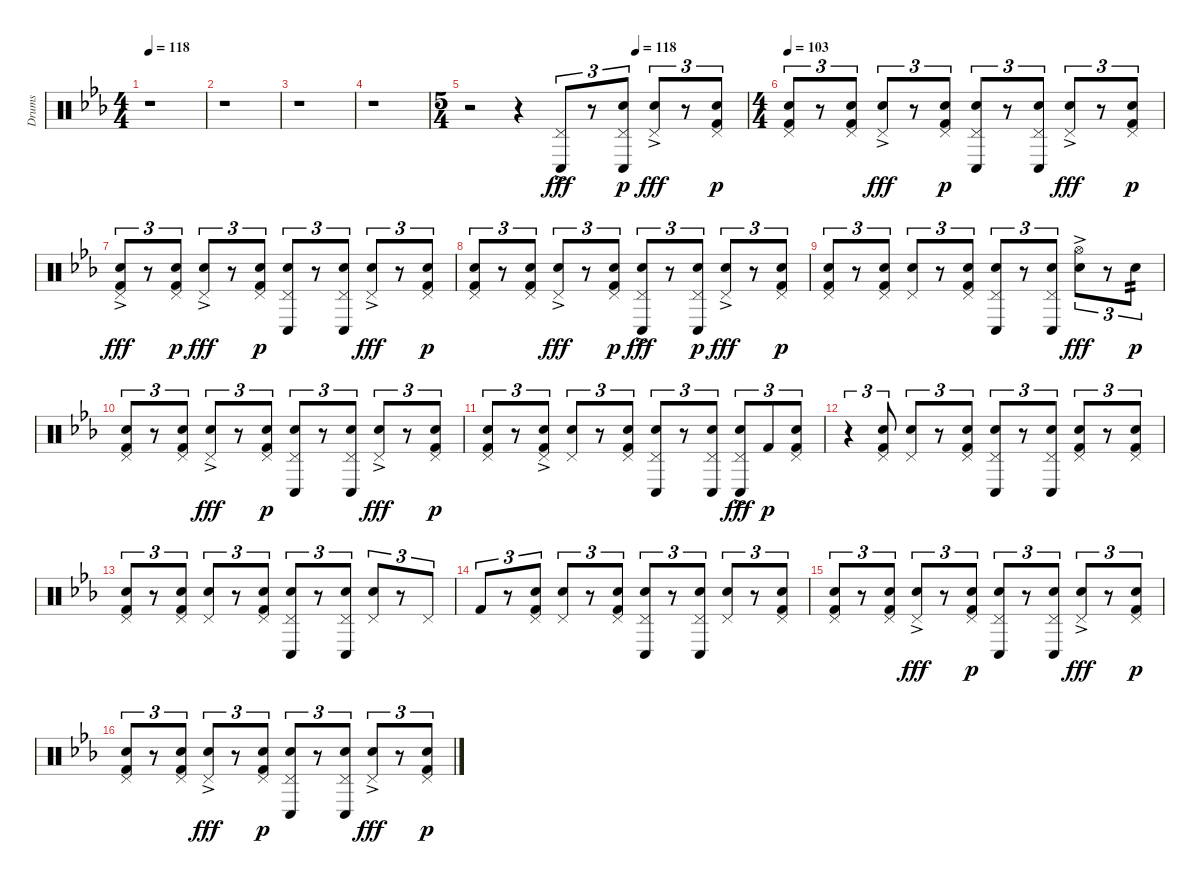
\track ("Drums" "Drums") {instrument percussion}
\staff {score}
\articulation defaults
\ts (4 4)
\tempo 118
\clef neutral
\ks eb
r.1{dy fff} |
r.1 |
r.1 |
r.1 |
\ts (5 4)
\tempo (118 0.6)
r.2 r.4 ("Pedal Hi-Hat (hit)"{ac} "Conga low (hit)"{ac}).8{tu (3 2)} r.8{tu (3 2)} ("Pedal Hi-Hat (hit)" "Snare (hit) 2" "Conga low (hit)").8{tu (3 2) dy p} ("Pedal Hi-Hat (hit)"{ac} "Snare (hit) 2"{ac}).8{tu (3 2) dy fff} r.8{tu (3 2)} ("Pedal Hi-Hat (hit)" "Snare (hit) 2" "Kick (hit) 2").8{tu (3 2) dy p} |
\ts (4 4)
\tempo 103
("Pedal Hi-Hat (hit)" "Snare (hit) 2" "Kick (hit) 2").8{tu (3 2)} r.8{tu (3 2)} ("Pedal Hi-Hat (hit)" "Snare (hit) 2" "Kick (hit) 2").8{tu (3 2)} ("Pedal Hi-Hat (hit)"{ac} "Snare (hit) 2"{ac}).8{tu (3 2) dy fff} r.8{tu (3 2)} ("Pedal Hi-Hat (hit)" "Snare (hit) 2" "Kick (hit) 2").8{tu (3 2) dy p} ("Pedal Hi-Hat (hit)" "Snare (hit) 2" "Conga low (hit)").8{tu (3 2)} r.8{tu (3 2)} ("Pedal Hi-Hat (hit)" "Snare (hit) 2" "Conga low (hit)").8{tu (3 2)} ("Pedal Hi-Hat (hit)"{ac} "Snare (hit) 2"{ac}).8{tu (3 2) dy fff} r.8{tu (3 2)} ("Pedal Hi-Hat (hit)" "Snare (hit) 2" "Kick (hit) 2").8{tu (3 2) dy p} |
("Pedal Hi-Hat (hit)"{ac} "Snare (hit) 2"{ac} "Kick (hit) 2"{ac}).8{tu (3 2) dy fff} r.8{tu (3 2)} ("Pedal Hi-Hat (hit)" "Snare (hit) 2" "Kick (hit) 2").8{tu (3 2) dy p} ("Pedal Hi-Hat (hit)"{ac} "Snare (hit) 2"{ac}).8{tu (3 2) dy fff} r.8{tu (3 2)} ("Pedal Hi-Hat (hit)" "Snare (hit) 2" "Kick (hit) 2").8{tu (3 2) dy p} ("Pedal Hi-Hat (hit)" "Snare (hit) 2" "Conga low (hit)").8{tu (3 2)} r.8{tu (3 2)} ("Pedal Hi-Hat (hit)" "Snare (hit) 2" "Conga low (hit)").8{tu (3 2)} ("Pedal Hi-Hat (hit)"{ac} "Snare (hit) 2"{ac}).8{tu (3 2) dy fff} r.8{tu (3 2)} ("Pedal Hi-Hat (hit)" "Snare (hit) 2" "Kick (hit) 2").8{tu (3 2) dy p} |
("Pedal Hi-Hat (hit)" "Snare (hit) 2" "Kick (hit) 2").8{tu (3 2)} r.8{tu (3 2)} ("Pedal Hi-Hat (hit)" "Snare (hit) 2" "Kick (hit) 2").8{tu (3 2)} ("Pedal Hi-Hat (hit)"{ac} "Snare (hit) 2"{ac}).8{tu (3 2) dy fff} r.8{tu (3 2)} ("Pedal Hi-Hat (hit)" "Snare (hit) 2" "Kick (hit) 2").8{tu (3 2) dy p} ("Pedal Hi-Hat (hit)"{ac} "Snare (hit) 2"{ac} "Conga low (hit)"{ac}).8{tu (3 2) dy fff} r.8{tu (3 2)} ("Pedal Hi-Hat (hit)" "Snare (hit) 2" "Conga low (hit)").8{tu (3 2) dy p} ("Pedal Hi-Hat (hit)"{ac} "Snare (hit) 2"{ac}).8{tu (3 2) dy fff} r.8{tu (3 2)} ("Pedal Hi-Hat (hit)" "Snare (hit) 2" "Kick (hit) 2").8{tu (3 2) dy p} |
("Pedal Hi-Hat (hit)" "Snare (hit) 2" "Kick (hit) 2").8{tu (3 2)} r.8{tu (3 2)} ("Pedal Hi-Hat (hit)" "Snare (hit) 2" "Kick (hit) 2").8{tu (3 2)} ("Pedal Hi-Hat (hit)" "Snare (hit) 2").8{tu (3 2)} r.8{tu (3 2)} ("Pedal Hi-Hat (hit)" "Snare (hit) 2" "Kick (hit) 2").8{tu (3 2)} ("Pedal Hi-Hat (hit)" "Snare (hit) 2" "Conga low (hit)").8{tu (3 2)} r.8{tu (3 2)} ("Pedal Hi-Hat (hit)" "Snare (hit) 2" "Conga low (hit)").8{tu (3 2)} ("Hi-Hat (open)"{ac} "Snare (hit) 2"{ac}).8{tu (3 2) dy fff} r.8{tu (3 2)} "Snare (hit) 2".8{tu (3 2) tp 2 dy p} |
("Pedal Hi-Hat (hit)" "Snare (hit) 2" "Kick (hit) 2").8{tu (3 2)} r.8{tu (3 2)} ("Pedal Hi-Hat (hit)" "Snare (hit) 2" "Kick (hit) 2").8{tu (3 2)} ("Pedal Hi-Hat (hit)"{ac} "Snare (hit) 2"{ac}).8{tu (3 2) dy fff} r.8{tu (3 2)} ("Pedal Hi-Hat (hit)" "Snare (hit) 2" "Kick (hit) 2").8{tu (3 2) dy p} ("Pedal Hi-Hat (hit)" "Snare (hit) 2" "Conga low (hit)").8{tu (3 2)} r.8{tu (3 2)} ("Pedal Hi-Hat (hit)" "Snare (hit) 2" "Conga low (hit)").8{tu (3 2)} ("Pedal Hi-Hat (hit)"{ac} "Snare (hit) 2"{ac}).8{tu (3 2) dy fff} r.8{tu (3 2)} ("Pedal Hi-Hat (hit)" "Snare (hit) 2" "Kick (hit) 2").8{tu (3 2) dy p} |
("Pedal Hi-Hat (hit)" "Snare (hit) 2" "Kick (hit) 2").8{tu (3 2)} r.8{tu (3 2)} ("Pedal Hi-Hat (hit)"{ac} "Snare (hit) 2"{ac} "Kick (hit) 2").8{tu (3 2)} ("Pedal Hi-Hat (hit)" "Snare (hit) 2").8{tu (3 2)} r.8{tu (3 2)} ("Pedal Hi-Hat (hit)" "Snare (hit) 2" "Kick (hit) 2").8{tu (3 2)} ("Pedal Hi-Hat (hit)" "Snare (hit) 2" "Conga low (hit)").8{tu (3 2)} r.8{tu (3 2)} ("Pedal Hi-Hat (hit)" "Snare (hit) 2" "Conga low (hit)").8{tu (3 2)} ("Pedal Hi-Hat (hit)"{ac} "Snare (hit) 2"{ac} "Conga low (hit)").8{tu (3 2) dy fff} "Kick (hit) 2".8{tu (3 2) dy p} ("Pedal Hi-Hat (hit)" "Snare (hit) 2" "Kick (hit) 2").8{tu (3 2)} |
r.4{tu (3 2)} ("Pedal Hi-Hat (hit)" "Snare (hit) 2" "Kick (hit) 2").8{tu (3 2)} ("Pedal Hi-Hat (hit)" "Snare (hit) 2").8{tu (3 2)} r.8{tu (3 2)} ("Pedal Hi-Hat (hit)" "Snare (hit) 2" "Kick (hit) 2").8{tu (3 2)} ("Pedal Hi-Hat (hit)" "Snare (hit) 2" "Conga low (hit)").8{tu (3 2)} r.8{tu (3 2)} ("Pedal Hi-Hat (hit)" "Snare (hit) 2" "Conga low (hit)").8{tu (3 2)} ("Pedal Hi-Hat (hit)" "Snare (hit) 2" "Kick (hit) 2").8{tu (3 2)} r.8{tu (3 2)} ("Pedal Hi-Hat (hit)" "Snare (hit) 2" "Kick (hit) 2").8{tu (3 2)} |
("Pedal Hi-Hat (hit)" "Snare (hit) 2" "Kick (hit) 2").8{tu (3 2)} r.8{tu (3 2)} ("Pedal Hi-Hat (hit)" "Snare (hit) 2" "Kick (hit) 2").8{tu (3 2)} ("Pedal Hi-Hat (hit)" "Snare (hit) 2").8{tu (3 2)} r.8{tu (3 2)} ("Pedal Hi-Hat (hit)" "Snare (hit) 2" "Kick (hit) 2").8{tu (3 2)} ("Pedal Hi-Hat (hit)" "Snare (hit) 2" "Conga low (hit)").8{tu (3 2)} r.8{tu (3 2)} ("Pedal Hi-Hat (hit)" "Snare (hit) 2" "Conga low (hit)").8{tu (3 2)} ("Pedal Hi-Hat (hit)" "Snare (hit) 2").8{tu (3 2)} r.8{tu (3 2)} "Pedal Hi-Hat (hit)".8{tu (3 2)} |
"Kick (hit) 2".8{tu (3 2)} r.8{tu (3 2)} ("Pedal Hi-Hat (hit)" "Snare (hit) 2" "Kick (hit) 2").8{tu (3 2)} ("Pedal Hi-Hat (hit)" "Snare (hit) 2").8{tu (3 2)} r.8{tu (3 2)} ("Pedal Hi-Hat (hit)" "Snare (hit) 2" "Kick (hit) 2").8{tu (3 2)} ("Pedal Hi-Hat (hit)" "Snare (hit) 2" "Conga low (hit)").8{tu (3 2)} r.8{tu (3 2)} ("Pedal Hi-Hat (hit)" "Snare (hit) 2" "Conga low (hit)").8{tu (3 2)} ("Pedal Hi-Hat (hit)" "Snare (hit) 2").8{tu (3 2)} r.8{tu (3 2)} ("Pedal Hi-Hat (hit)" "Snare (hit) 2" "Kick (hit) 2").8{tu (3 2)} |
("Pedal Hi-Hat (hit)" "Snare (hit) 2" "Kick (hit) 2").8{tu (3 2)} r.8{tu (3 2)} ("Pedal Hi-Hat (hit)" "Snare (hit) 2" "Kick (hit) 2").8{tu (3 2)} ("Pedal Hi-Hat (hit)"{ac} "Snare (hit) 2"{ac}).8{tu (3 2) dy fff} r.8{tu (3 2)} ("Pedal Hi-Hat (hit)" "Snare (hit) 2" "Kick (hit) 2").8{tu (3 2) dy p} ("Pedal Hi-Hat (hit)" "Snare (hit) 2" "Conga low (hit)").8{tu (3 2)} r.8{tu (3 2)} ("Pedal Hi-Hat (hit)" "Snare (hit) 2" "Conga low (hit)").8{tu (3 2)} ("Pedal Hi-Hat (hit)"{ac} "Snare (hit) 2"{ac}).8{tu (3 2) dy fff} r.8{tu (3 2)} ("Pedal Hi-Hat (hit)" "Snare (hit) 2" "Kick (hit) 2").8{tu (3 2) dy p} |
("Pedal Hi-Hat (hit)" "Snare (hit) 2" "Kick (hit) 2").8{tu (3 2)} r.8{tu (3 2)} ("Pedal Hi-Hat (hit)" "Snare (hit) 2" "Kick (hit) 2").8{tu (3 2)} ("Pedal Hi-Hat (hit)"{ac} "Snare (hit) 2"{ac}).8{tu (3 2) dy fff} r.8{tu (3 2)} ("Pedal Hi-Hat (hit)" "Snare (hit) 2" "Kick (hit) 2").8{tu (3 2) dy p} ("Pedal Hi-Hat (hit)" "Snare (hit) 2" "Conga low (hit)").8{tu (3 2)} r.8{tu (3 2)} ("Pedal Hi-Hat (hit)" "Snare (hit) 2" "Conga low (hit)").8{tu (3 2)} ("Pedal Hi-Hat (hit)"{ac} "Snare (hit) 2"{ac}).8{tu (3 2) dy fff} r.8{tu (3 2)} ("Pedal Hi-Hat (hit)" "Snare (hit) 2" "Kick (hit) 2").8{tu (3 2) dy p}
